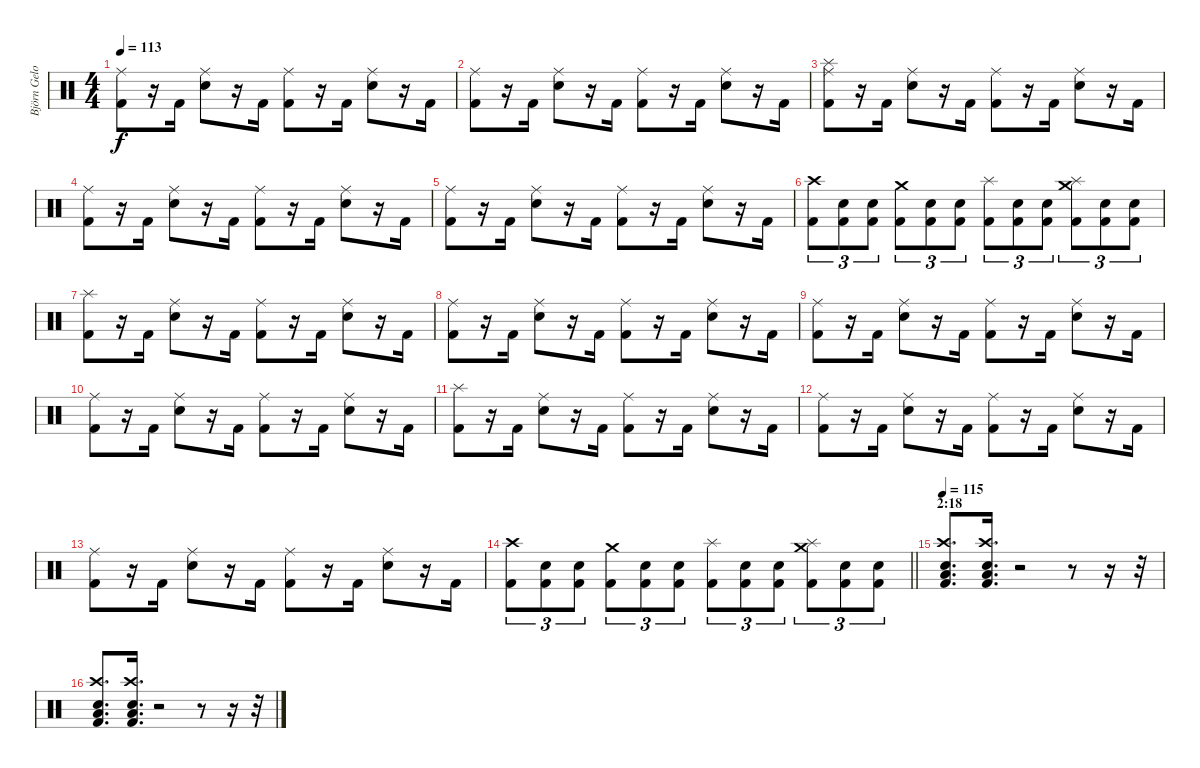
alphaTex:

\track ("Björn Gelotte" "Björn Gelo") {instrument percussion}
\staff {score}
\articulation defaults
\ts (4 4)
\tempo 113
\clef neutral
\ks c
("Ride (middle)" "Kick (hit) 2").8{dy f} r.16 "Kick (hit) 2".16 ("Ride (middle)" "Electric Snare (hit)").8 r.16 "Kick (hit) 2".16 ("Ride (middle)" "Kick (hit) 2").8 r.16 "Kick (hit) 2".16 ("Ride (middle)" "Electric Snare (hit)").8 r.16 "Kick (hit) 2".16 |
("Ride (middle)" "Kick (hit) 2").8 r.16 "Kick (hit) 2".16 ("Ride (middle)" "Electric Snare (hit)").8 r.16 "Kick (hit) 2".16 ("Ride (middle)" "Kick (hit) 2").8 r.16 "Kick (hit) 2".16 ("Ride (middle)" "Electric Snare (hit)").8 r.16 "Kick (hit) 2".16 |
("Ride (middle)" "Splash (hit)" "Kick (hit) 2").8 r.16 "Kick (hit) 2".16 ("Ride (middle)" "Electric Snare (hit)").8 r.16 "Kick (hit) 2".16 ("Ride (middle)" "Kick (hit) 2").8 r.16 "Kick (hit) 2".16 ("Ride (middle)" "Electric Snare (hit)").8 r.16 "Kick (hit) 2".16 |
("Ride (middle)" "Kick (hit) 2").8 r.16 "Kick (hit) 2".16 ("Ride (middle)" "Electric Snare (hit)").8 r.16 "Kick (hit) 2".16 ("Ride (middle)" "Kick (hit) 2").8 r.16 "Kick (hit) 2".16 ("Ride (middle)" "Electric Snare (hit)").8 r.16 "Kick (hit) 2".16 |
("Ride (middle)" "Kick (hit) 2").8 r.16 "Kick (hit) 2".16 ("Ride (middle)" "Electric Snare (hit)").8 r.16 "Kick (hit) 2".16 ("Ride (middle)" "Kick (hit) 2").8 r.16 "Kick (hit) 2".16 ("Ride (middle)" "Electric Snare (hit)").8 r.16 "Kick (hit) 2".16 |
("Crash high (hit)" "Kick (hit) 2").8{tu (3 2)} ("Electric Snare (hit)" "Kick (hit) 2").8{tu (3 2)} ("Electric Snare (hit)" "Kick (hit) 2").8{tu (3 2)} ("Crash medium (hit)" "Kick (hit) 2").8{tu (3 2)} ("Electric Snare (hit)" "Kick (hit) 2").8{tu (3 2)} ("Electric Snare (hit)" "Kick (hit) 2").8{tu (3 2)} ("Splash (hit)" "Kick (hit) 2").8{tu (3 2)} ("Electric Snare (hit)" "Kick (hit) 2").8{tu (3 2)} ("Electric Snare (hit)" "Kick (hit) 2").8{tu (3 2)} ("Splash (hit)" "Crash medium (hit)" "Kick (hit) 2").8{tu (3 2)} ("Electric Snare (hit)" "Kick (hit) 2").8{tu (3 2)} ("Electric Snare (hit)" "Kick (hit) 2").8{tu (3 2)} |
("Splash (hit)" "Kick (hit) 2").8 r.16 "Kick (hit) 2".16 ("Ride (middle)" "Electric Snare (hit)").8 r.16 "Kick (hit) 2".16 ("Ride (middle)" "Kick (hit) 2").8 r.16 "Kick (hit) 2".16 ("Ride (middle)" "Electric Snare (hit)").8 r.16 "Kick (hit) 2".16 |
("Ride (middle)" "Kick (hit) 2").8 r.16 "Kick (hit) 2".16 ("Ride (middle)" "Electric Snare (hit)").8 r.16 "Kick (hit) 2".16 ("Ride (middle)" "Kick (hit) 2").8 r.16 "Kick (hit) 2".16 ("Ride (middle)" "Electric Snare (hit)").8 r.16 "Kick (hit) 2".16 |
("Ride (middle)" "Kick (hit) 2").8 r.16 "Kick (hit) 2".16 ("Ride (middle)" "Electric Snare (hit)").8 r.16 "Kick (hit) 2".16 ("Ride (middle)" "Kick (hit) 2").8 r.16 "Kick (hit) 2".16 ("Ride (middle)" "Electric Snare (hit)").8 r.16 "Kick (hit) 2".16 |
("Ride (middle)" "Kick (hit) 2").8 r.16 "Kick (hit) 2".16 ("Ride (middle)" "Electric Snare (hit)").8 r.16 "Kick (hit) 2".16 ("Ride (middle)" "Kick (hit) 2").8 r.16 "Kick (hit) 2".16 ("Ride (middle)" "Electric Snare (hit)").8 r.16 "Kick (hit) 2".16 |
("Splash (hit)" "Kick (hit) 2").8 r.16 "Kick (hit) 2".16 ("Ride (middle)" "Electric Snare (hit)").8 r.16 "Kick (hit) 2".16 ("Ride (middle)" "Kick (hit) 2").8 r.16 "Kick (hit) 2".16 ("Ride (middle)" "Electric Snare (hit)").8 r.16 "Kick (hit) 2".16 |
("Ride (middle)" "Kick (hit) 2").8 r.16 "Kick (hit) 2".16 ("Ride (middle)" "Electric Snare (hit)").8 r.16 "Kick (hit) 2".16 ("Ride (middle)" "Kick (hit) 2").8 r.16 "Kick (hit) 2".16 ("Ride (middle)" "Electric Snare (hit)").8 r.16 "Kick (hit) 2".16 |
("Ride (middle)" "Kick (hit) 2").8 r.16 "Kick (hit) 2".16 ("Ride (middle)" "Electric Snare (hit)").8 r.16 "Kick (hit) 2".16 ("Ride (middle)" "Kick (hit) 2").8 r.16 "Kick (hit) 2".16 ("Ride (middle)" "Electric Snare (hit)").8 r.16 "Kick (hit) 2".16 |
\barLineRight lightlight
("Crash high (hit)" "Kick (hit) 2").8{tu (3 2)} ("Electric Snare (hit)" "Kick (hit) 2").8{tu (3 2)} ("Electric Snare (hit)" "Kick (hit) 2").8{tu (3 2)} ("Crash medium (hit)" "Kick (hit) 2").8{tu (3 2)} ("Electric Snare (hit)" "Kick (hit) 2").8{tu (3 2)} ("Electric Snare (hit)" "Kick (hit) 2").8{tu (3 2)} ("Splash (hit)" "Kick (hit) 2").8{tu (3 2)} ("Electric Snare (hit)" "Kick (hit) 2").8{tu (3 2)} ("Electric Snare (hit)" "Kick (hit) 2").8{tu (3 2)} ("Splash (hit)" "Crash medium (hit)" "Kick (hit) 2").8{tu (3 2)} ("Electric Snare (hit)" "Kick (hit) 2").8{tu (3 2)} ("Electric Snare (hit)" "Kick (hit) 2").8{tu (3 2)} |
\section ("" "2:18")
\tempo 115
("Crash high (hit)" "Electric Snare (hit)" "Low Floor Tom (hit)" "Kick (hit) 2").8{d} ("Crash high (hit)" "Electric Snare (hit)" "Low Floor Tom (hit)" "Kick (hit) 2").16{d} r.2 r.8 r.16 r.32 |
("Crash high (hit)" "Electric Snare (hit)" "Low Floor Tom (hit)" "Kick (hit) 2").8{d} ("Crash high (hit)" "Electric Snare (hit)" "Low Floor Tom (hit)" "Kick (hit) 2").16{d} r.2 r.8 r.16 r.32
